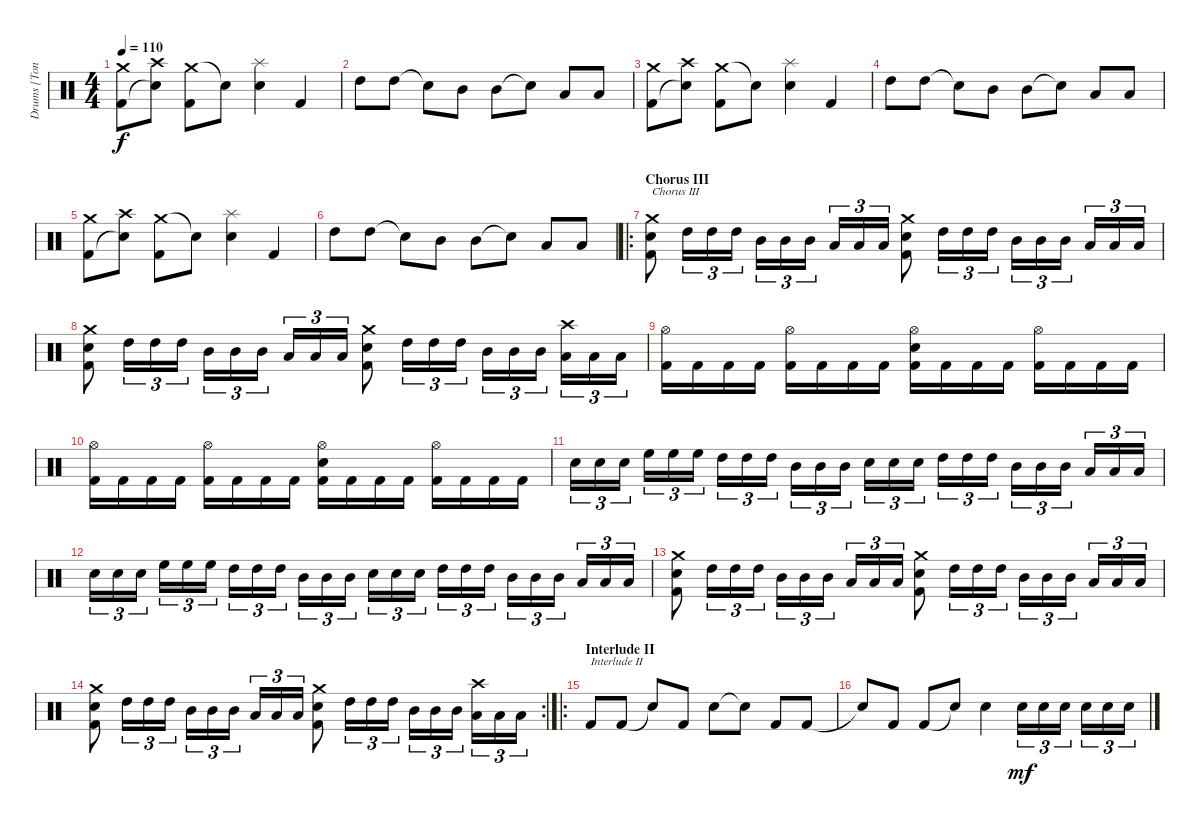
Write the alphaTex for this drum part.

\track ("Drums [Tony Laureano]" "Drums [Ton") {instrument percussion}
\staff {score}
\articulation defaults
\ts (4 4)
\tempo 110
\clef neutral
\ks c
("Crash medium (hit)" "Kick (hit) 2").8{dy f} ("Crash high (hit)" "Snare (hit)"{t}).8 ("Crash medium (hit)" "Kick (hit) 2").8 "Snare (hit)"{t}.8 ("Splash (hit)" "Electric Snare (hit)").4 "Kick (hit) 2".4 |
"High Tom (hit)".8 "High Tom (hit)".8 "Snare (hit)"{t}.8 "Mid Tom (hit)".8 "Mid Tom (hit)".8 "Snare (hit)"{t}.8 "Low Tom (hit)".8 "Low Tom (hit)".8 |
("Crash medium (hit)" "Kick (hit) 2").8 ("Crash high (hit)" "Snare (hit)"{t}).8 ("Crash medium (hit)" "Kick (hit) 2").8 "Snare (hit)"{t}.8 ("Splash (hit)" "Electric Snare (hit)").4 "Kick (hit) 2".4 |
"High Tom (hit)".8 "High Tom (hit)".8 "Snare (hit)"{t}.8 "Mid Tom (hit)".8 "Mid Tom (hit)".8 "Snare (hit)"{t}.8 "Low Tom (hit)".8 "Low Tom (hit)".8 |
("Crash medium (hit)" "Kick (hit) 2").8 ("Crash high (hit)" "Snare (hit)"{t}).8 ("Crash medium (hit)" "Kick (hit) 2").8 "Snare (hit)"{t}.8 ("Splash (hit)" "Electric Snare (hit)").4 "Kick (hit) 2".4 |
"High Tom (hit)".8 "High Tom (hit)".8 "Snare (hit)"{t}.8 "Mid Tom (hit)".8 "Mid Tom (hit)".8 "Snare (hit)"{t}.8 "Low Tom (hit)".8 "Low Tom (hit)".8 |
\ro
\section ("" "Chorus III")
("Crash medium (hit)" "Electric Snare (hit)" "Kick (hit) 2").8{txt "Chorus III"} "High Tom (hit)".16{tu (3 2)} "High Tom (hit)".16{tu (3 2)} "High Tom (hit)".16{tu (3 2)} "Mid Tom (hit)".16{tu (3 2)} "Mid Tom (hit)".16{tu (3 2)} "Mid Tom (hit)".16{tu (3 2)} "Low Tom (hit)".16{tu (3 2)} "Low Tom (hit)".16{tu (3 2)} "Low Tom (hit)".16{tu (3 2)} ("Crash medium (hit)" "Electric Snare (hit)" "Kick (hit) 2").8 "High Tom (hit)".16{tu (3 2)} "High Tom (hit)".16{tu (3 2)} "High Tom (hit)".16{tu (3 2)} "Mid Tom (hit)".16{tu (3 2)} "Mid Tom (hit)".16{tu (3 2)} "Mid Tom (hit)".16{tu (3 2)} "Low Tom (hit)".16{tu (3 2)} "Low Tom (hit)".16{tu (3 2)} "Low Tom (hit)".16{tu (3 2)} |
("Crash medium (hit)" "Electric Snare (hit)" "Kick (hit) 2").8 "High Tom (hit)".16{tu (3 2)} "High Tom (hit)".16{tu (3 2)} "High Tom (hit)".16{tu (3 2)} "Mid Tom (hit)".16{tu (3 2)} "Mid Tom (hit)".16{tu (3 2)} "Mid Tom (hit)".16{tu (3 2)} "Low Tom (hit)".16{tu (3 2)} "Low Tom (hit)".16{tu (3 2)} "Low Tom (hit)".16{tu (3 2)} ("Crash medium (hit)" "Electric Snare (hit)" "Kick (hit) 2").8 "High Tom (hit)".16{tu (3 2)} "High Tom (hit)".16{tu (3 2)} "High Tom (hit)".16{tu (3 2)} "Mid Tom (hit)".16{tu (3 2)} "Mid Tom (hit)".16{tu (3 2)} "Mid Tom (hit)".16{tu (3 2)} ("Crash high (hit)" "Low Tom (hit)").16{tu (3 2)} "Low Tom (hit)".16{tu (3 2)} "Low Tom (hit)".16{tu (3 2)} |
("Hi-Hat (open)" "Kick (hit) 2").16 "Kick (hit) 2".16 "Kick (hit) 2".16 "Kick (hit) 2".16 ("Hi-Hat (open)" "Kick (hit) 2").16 "Kick (hit) 2".16 "Kick (hit) 2".16 "Kick (hit) 2".16 ("Hi-Hat (open)" "Electric Snare (hit)" "Kick (hit) 2").16 "Kick (hit) 2".16 "Kick (hit) 2".16 "Kick (hit) 2".16 ("Hi-Hat (open)" "Kick (hit) 2").16 "Kick (hit) 2".16 "Kick (hit) 2".16 "Kick (hit) 2".16 |
("Hi-Hat (open)" "Kick (hit) 2").16 "Kick (hit) 2".16 "Kick (hit) 2".16 "Kick (hit) 2".16 ("Hi-Hat (open)" "Kick (hit) 2").16 "Kick (hit) 2".16 "Kick (hit) 2".16 "Kick (hit) 2".16 ("Hi-Hat (open)" "Electric Snare (hit)" "Kick (hit) 2").16 "Kick (hit) 2".16 "Kick (hit) 2".16 "Kick (hit) 2".16 ("Hi-Hat (open)" "Kick (hit) 2").16 "Kick (hit) 2".16 "Kick (hit) 2".16 "Kick (hit) 2".16 |
"Electric Snare (hit)".16{tu (3 2)} "Electric Snare (hit)".16{tu (3 2)} "Electric Snare (hit)".16{tu (3 2)} "High Floor Tom (hit)".16{tu (3 2)} "High Floor Tom (hit)".16{tu (3 2)} "High Floor Tom (hit)".16{tu (3 2)} "High Tom (hit)".16{tu (3 2)} "High Tom (hit)".16{tu (3 2)} "High Tom (hit)".16{tu (3 2)} "Mid Tom (hit)".16{tu (3 2)} "Mid Tom (hit)".16{tu (3 2)} "Mid Tom (hit)".16{tu (3 2)} "Electric Snare (hit)".16{tu (3 2)} "Electric Snare (hit)".16{tu (3 2)} "Electric Snare (hit)".16{tu (3 2)} "High Tom (hit)".16{tu (3 2)} "High Tom (hit)".16{tu (3 2)} "High Tom (hit)".16{tu (3 2)} "Mid Tom (hit)".16{tu (3 2)} "Mid Tom (hit)".16{tu (3 2)} "Mid Tom (hit)".16{tu (3 2)} "Low Tom (hit)".16{tu (3 2)} "Low Tom (hit)".16{tu (3 2)} "Low Tom (hit)".16{tu (3 2)} |
"Electric Snare (hit)".16{tu (3 2)} "Electric Snare (hit)".16{tu (3 2)} "Electric Snare (hit)".16{tu (3 2)} "High Floor Tom (hit)".16{tu (3 2)} "High Floor Tom (hit)".16{tu (3 2)} "High Floor Tom (hit)".16{tu (3 2)} "High Tom (hit)".16{tu (3 2)} "High Tom (hit)".16{tu (3 2)} "High Tom (hit)".16{tu (3 2)} "Mid Tom (hit)".16{tu (3 2)} "Mid Tom (hit)".16{tu (3 2)} "Mid Tom (hit)".16{tu (3 2)} "Electric Snare (hit)".16{tu (3 2)} "Electric Snare (hit)".16{tu (3 2)} "Electric Snare (hit)".16{tu (3 2)} "High Tom (hit)".16{tu (3 2)} "High Tom (hit)".16{tu (3 2)} "High Tom (hit)".16{tu (3 2)} "Mid Tom (hit)".16{tu (3 2)} "Mid Tom (hit)".16{tu (3 2)} "Mid Tom (hit)".16{tu (3 2)} "Low Tom (hit)".16{tu (3 2)} "Low Tom (hit)".16{tu (3 2)} "Low Tom (hit)".16{tu (3 2)} |
("Crash medium (hit)" "Electric Snare (hit)" "Kick (hit) 2").8 "High Tom (hit)".16{tu (3 2)} "High Tom (hit)".16{tu (3 2)} "High Tom (hit)".16{tu (3 2)} "Mid Tom (hit)".16{tu (3 2)} "Mid Tom (hit)".16{tu (3 2)} "Mid Tom (hit)".16{tu (3 2)} "Low Tom (hit)".16{tu (3 2)} "Low Tom (hit)".16{tu (3 2)} "Low Tom (hit)".16{tu (3 2)} ("Crash medium (hit)" "Electric Snare (hit)" "Kick (hit) 2").8 "High Tom (hit)".16{tu (3 2)} "High Tom (hit)".16{tu (3 2)} "High Tom (hit)".16{tu (3 2)} "Mid Tom (hit)".16{tu (3 2)} "Mid Tom (hit)".16{tu (3 2)} "Mid Tom (hit)".16{tu (3 2)} "Low Tom (hit)".16{tu (3 2)} "Low Tom (hit)".16{tu (3 2)} "Low Tom (hit)".16{tu (3 2)} |
\rc 2
("Crash medium (hit)" "Electric Snare (hit)" "Kick (hit) 2").8 "High Tom (hit)".16{tu (3 2)} "High Tom (hit)".16{tu (3 2)} "High Tom (hit)".16{tu (3 2)} "Mid Tom (hit)".16{tu (3 2)} "Mid Tom (hit)".16{tu (3 2)} "Mid Tom (hit)".16{tu (3 2)} "Low Tom (hit)".16{tu (3 2)} "Low Tom (hit)".16{tu (3 2)} "Low Tom (hit)".16{tu (3 2)} ("Crash medium (hit)" "Electric Snare (hit)" "Kick (hit) 2").8 "High Tom (hit)".16{tu (3 2)} "High Tom (hit)".16{tu (3 2)} "High Tom (hit)".16{tu (3 2)} "Mid Tom (hit)".16{tu (3 2)} "Mid Tom (hit)".16{tu (3 2)} "Mid Tom (hit)".16{tu (3 2)} ("Crash high (hit)" "Low Tom (hit)").16{tu (3 2)} "Low Tom (hit)".16{tu (3 2)} "Low Tom (hit)".16{tu (3 2)} |
\ro
\section ("" "Interlude II")
"Kick (hit) 2".8{txt "Interlude II"} "Kick (hit) 2".8 "Snare (hit)"{t}.8 "Kick (hit) 2".8 "Electric Snare (hit)".8 "Snare (hit)"{t}.8 "Kick (hit) 2".8 "Kick (hit) 2".8 |
"Snare (hit)"{t}.8 "Kick (hit) 2".8 "Kick (hit) 2".8 "Snare (hit)"{t}.8 "Electric Snare (hit)".4 "Electric Snare (hit)".16{tu (3 2) dy mf} "Electric Snare (hit)".16{tu (3 2)} "Electric Snare (hit)".16{tu (3 2)} "Electric Snare (hit)".16{tu (3 2)} "Electric Snare (hit)".16{tu (3 2)} "Electric Snare (hit)".16{tu (3 2)}
